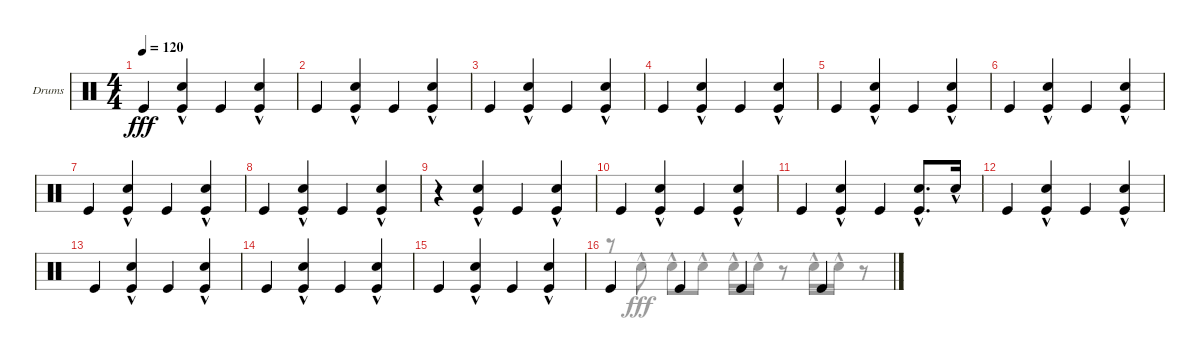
\defaultSystemsLayout 4
\bracketExtendMode groupsimilarinstruments
\firstSystemTrackNameOrientation horizontal
\otherSystemsTrackNameOrientation horizontal
\track ("Drumkit" "Drums") {instrument percussion}
\staff {score}
\articulation defaults
\voice
\ts (4 4)
\tempo 120
\clef neutral
\scale
0.333333
\ks c "Kick (hit)".4{dy fff}
("Kick (hit)" "Snare (hit) 2"{hac}).4 "Kick (hit)".4 ("Kick (hit)" "Snare (hit) 2"{hac}).4 |
\scale
0.333333 "Kick (hit)".4 ("Kick (hit)" "Snare (hit) 2"{hac}).4 "Kick (hit)".4 ("Kick (hit)" "Snare (hit) 2"{hac}).4 |
\scale
0.333333 "Kick (hit)".4 ("Kick (hit)" "Snare (hit) 2"{hac}).4 "Kick (hit)".4 ("Kick (hit)" "Snare (hit) 2"{hac}).4 |
\scale
0.333333 "Kick (hit)".4 ("Kick (hit)" "Snare (hit) 2"{hac}).4 "Kick (hit)".4 ("Kick (hit)" "Snare (hit) 2"{hac}).4 |
\scale
0.333333 "Kick (hit)".4 ("Kick (hit)" "Snare (hit) 2"{hac}).4 "Kick (hit)".4 ("Kick (hit)" "Snare (hit) 2"{hac}).4 |
\scale
0.333333 "Kick (hit)".4 ("Kick (hit)" "Snare (hit) 2"{hac}).4 "Kick (hit)".4 ("Kick (hit)" "Snare (hit) 2"{hac}).4 |
\scale
0.333333 "Kick (hit)".4 ("Kick (hit)" "Snare (hit) 2"{hac}).4 "Kick (hit)".4 ("Kick (hit)" "Snare (hit) 2"{hac}).4 |
\scale
0.333333 "Kick (hit)".4 ("Kick (hit)" "Snare (hit) 2"{hac}).4 "Kick (hit)".4 ("Kick (hit)" "Snare (hit) 2"{hac}).4 |
\scale
0.333333 r.4 ("Kick (hit)" "Snare (hit) 2"{hac}).4 "Kick (hit)".4 ("Kick (hit)" "Snare (hit) 2"{hac}).4 |
\scale
0.333333 "Kick (hit)".4 ("Kick (hit)" "Snare (hit) 2"{hac}).4 "Kick (hit)".4 ("Kick (hit)" "Snare (hit) 2"{hac}).4 |
\scale
0.333333 "Kick (hit)".4 ("Kick (hit)" "Snare (hit) 2"{hac}).4 "Kick (hit)".4 ("Kick (hit)" "Snare (hit) 2"{hac}).8{d} "Snare (hit) 2"{hac}.16 |
\scale
0.333333 "Kick (hit)".4 ("Kick (hit)" "Snare (hit) 2"{hac}).4 "Kick (hit)".4 ("Kick (hit)" "Snare (hit) 2"{hac}).4 |
\scale
0.333333 "Kick (hit)".4 ("Kick (hit)" "Snare (hit) 2"{hac}).4 "Kick (hit)".4 ("Kick (hit)" "Snare (hit) 2"{hac}).4 |
\scale
0.333333 "Kick (hit)".4 ("Kick (hit)" "Snare (hit) 2"{hac}).4 "Kick (hit)".4 ("Kick (hit)" "Snare (hit) 2"{hac}).4 |
\scale
0.333333 "Kick (hit)".4 ("Kick (hit)" "Snare (hit) 2"{hac}).4 "Kick (hit)".4 ("Kick (hit)" "Snare (hit) 2"{hac}).4 |
\scale
0.333333 "Kick (hit)".4 "Kick (hit)".4 "Kick (hit)".4 "Kick (hit)".4
\voice
\clef neutral
\ottava regular
\simile none
\scale
0.333333
\ks c
|
\scale
0.333333 |
\scale
0.333333 |
\scale
0.333333 |
\scale
0.333333 |
\scale
0.333333 |
\scale
0.333333 |
\scale
0.333333 |
\scale
0.333333 |
\scale
0.333333 |
\scale
0.333333 |
\scale
0.333333 |
\scale
0.333333 |
\scale
0.333333 |
\scale
0.333333 |
\scale
0.333333 r.8 "Snare (hit) 2"{hac}.8 "Snare (hit) 2"{hac}.8 "Snare (hit) 2"{hac}.8 "Snare (hit) 2"{hac}.16 "Snare (hit) 2"{hac}.16 r.8 "Snare (hit) 2"{hac}.16 "Snare (hit) 2"{hac}.16 r.8
